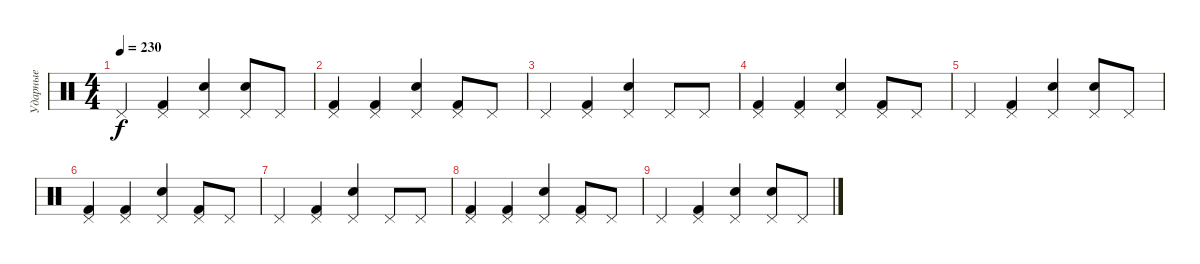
\track ("Ударные" "Ударные") {instrument percussion}
\staff {score}
\articulation defaults
\ts (4 4)
\tempo 230
\clef neutral
\ks c "Pedal Hi-Hat (hit)".4{dy f}
("Pedal Hi-Hat (hit)" "Kick (hit) 2").4 ("Pedal Hi-Hat (hit)" "Snare (hit) 2").4 ("Pedal Hi-Hat (hit)" "Snare (hit) 2").8 "Pedal Hi-Hat (hit)".8 |
("Pedal Hi-Hat (hit)" "Kick (hit) 2").4 ("Pedal Hi-Hat (hit)" "Kick (hit) 2").4 ("Pedal Hi-Hat (hit)" "Snare (hit) 2").4 ("Pedal Hi-Hat (hit)" "Kick (hit) 2").8 "Pedal Hi-Hat (hit)".8 |
"Pedal Hi-Hat (hit)".4 ("Pedal Hi-Hat (hit)" "Kick (hit) 2").4 ("Pedal Hi-Hat (hit)" "Snare (hit) 2").4 "Pedal Hi-Hat (hit)".8 "Pedal Hi-Hat (hit)".8 |
("Pedal Hi-Hat (hit)" "Kick (hit) 2").4 ("Pedal Hi-Hat (hit)" "Kick (hit) 2").4 ("Pedal Hi-Hat (hit)" "Snare (hit) 2").4 ("Pedal Hi-Hat (hit)" "Kick (hit) 2").8 "Pedal Hi-Hat (hit)".8 |
"Pedal Hi-Hat (hit)".4 ("Pedal Hi-Hat (hit)" "Kick (hit) 2").4 ("Pedal Hi-Hat (hit)" "Snare (hit) 2").4 ("Pedal Hi-Hat (hit)" "Snare (hit) 2").8 "Pedal Hi-Hat (hit)".8 |
("Pedal Hi-Hat (hit)" "Kick (hit) 2").4 ("Pedal Hi-Hat (hit)" "Kick (hit) 2").4 ("Pedal Hi-Hat (hit)" "Snare (hit) 2").4 ("Pedal Hi-Hat (hit)" "Kick (hit) 2").8 "Pedal Hi-Hat (hit)".8 |
"Pedal Hi-Hat (hit)".4 ("Pedal Hi-Hat (hit)" "Kick (hit) 2").4 ("Pedal Hi-Hat (hit)" "Snare (hit) 2").4 "Pedal Hi-Hat (hit)".8 "Pedal Hi-Hat (hit)".8 |
("Pedal Hi-Hat (hit)" "Kick (hit) 2").4 ("Pedal Hi-Hat (hit)" "Kick (hit) 2").4 ("Pedal Hi-Hat (hit)" "Snare (hit) 2").4 ("Pedal Hi-Hat (hit)" "Kick (hit) 2").8 "Pedal Hi-Hat (hit)".8 |
"Pedal Hi-Hat (hit)".4 ("Pedal Hi-Hat (hit)" "Kick (hit) 2").4 ("Pedal Hi-Hat (hit)" "Snare (hit) 2").4 ("Pedal Hi-Hat (hit)" "Snare (hit) 2").8 "Pedal Hi-Hat (hit)".8
